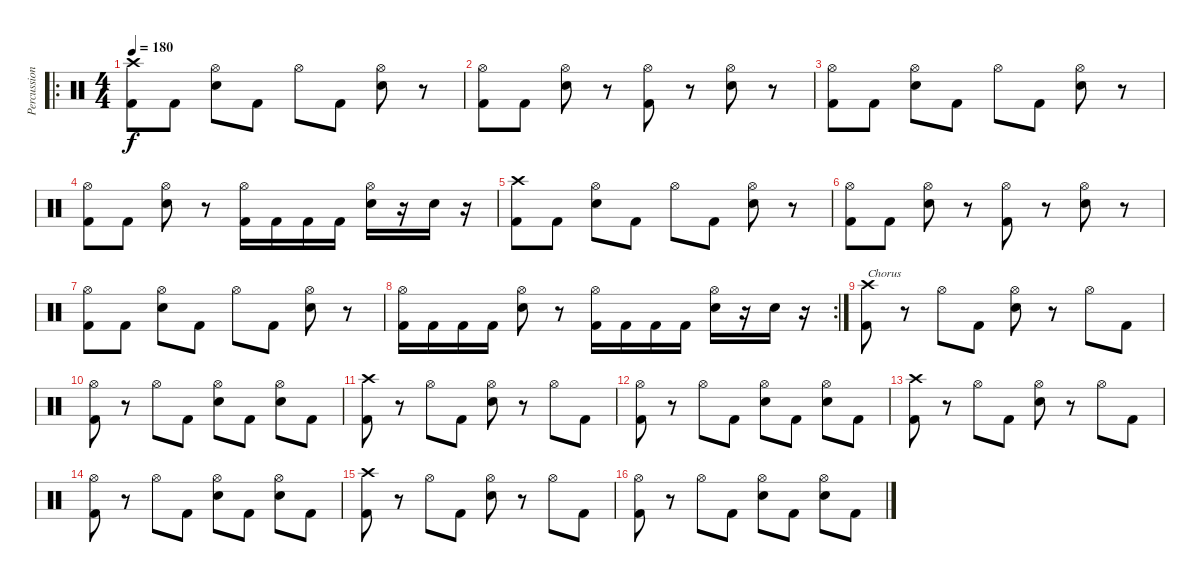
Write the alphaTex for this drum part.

\track ("Percussion" "Percussion") {instrument percussion}
\staff {score}
\articulation defaults
\ro
\ts (4 4)
\tempo 180
\clef neutral
\ks c
("Crash high (hit)" "Kick (hit) 2").8{dy f} "Kick (hit) 2".8 ("Hi-Hat (open)" "Electric Snare (hit)").8 "Kick (hit) 2".8 "Hi-Hat (open)".8 "Kick (hit) 2".8 ("Hi-Hat (open)" "Electric Snare (hit)").8 r.8 |
("Hi-Hat (open)" "Kick (hit) 2").8 "Kick (hit) 2".8 ("Hi-Hat (open)" "Electric Snare (hit)").8 r.8 ("Hi-Hat (open)" "Kick (hit) 2").8 r.8 ("Hi-Hat (open)" "Electric Snare (hit)").8 r.8 |
("Hi-Hat (open)" "Kick (hit) 2").8 "Kick (hit) 2".8 ("Hi-Hat (open)" "Electric Snare (hit)").8 "Kick (hit) 2".8 "Hi-Hat (open)".8 "Kick (hit) 2".8 ("Hi-Hat (open)" "Electric Snare (hit)").8 r.8 |
("Hi-Hat (open)" "Kick (hit) 2").8 "Kick (hit) 2".8 ("Hi-Hat (open)" "Electric Snare (hit)").8 r.8 ("Hi-Hat (open)" "Kick (hit) 2").16 "Kick (hit) 2".16 "Kick (hit) 2".16 "Kick (hit) 2".16 ("Hi-Hat (open)" "Electric Snare (hit)").16 r.16 "Electric Snare (hit)".16 r.16 |
("Crash high (hit)" "Kick (hit) 2").8 "Kick (hit) 2".8 ("Hi-Hat (open)" "Electric Snare (hit)").8 "Kick (hit) 2".8 "Hi-Hat (open)".8 "Kick (hit) 2".8 ("Hi-Hat (open)" "Electric Snare (hit)").8 r.8 |
("Hi-Hat (open)" "Kick (hit) 2").8 "Kick (hit) 2".8 ("Hi-Hat (open)" "Electric Snare (hit)").8 r.8 ("Hi-Hat (open)" "Kick (hit) 2").8 r.8 ("Hi-Hat (open)" "Electric Snare (hit)").8 r.8 |
("Hi-Hat (open)" "Kick (hit) 2").8 "Kick (hit) 2".8 ("Hi-Hat (open)" "Electric Snare (hit)").8 "Kick (hit) 2".8 "Hi-Hat (open)".8 "Kick (hit) 2".8 ("Hi-Hat (open)" "Electric Snare (hit)").8 r.8 |
\rc 2
("Hi-Hat (open)" "Kick (hit) 2").16 "Kick (hit) 2".16 "Kick (hit) 2".16 "Kick (hit) 2".16 ("Hi-Hat (open)" "Electric Snare (hit)").8 r.8 ("Hi-Hat (open)" "Kick (hit) 2").16 "Kick (hit) 2".16 "Kick (hit) 2".16 "Kick (hit) 2".16 ("Hi-Hat (open)" "Electric Snare (hit)").16 r.16 "Electric Snare (hit)".16 r.16 |
("Crash high (hit)" "Kick (hit) 2").8{txt "Chorus"} r.8 "Hi-Hat (open)".8 "Kick (hit) 2".8 ("Hi-Hat (open)" "Electric Snare (hit)").8 r.8 "Hi-Hat (open)".8 "Kick (hit) 2".8 |
("Hi-Hat (open)" "Kick (hit) 2").8 r.8 "Hi-Hat (open)".8 "Kick (hit) 2".8 ("Hi-Hat (open)" "Electric Snare (hit)").8 "Kick (hit) 2".8 ("Hi-Hat (open)" "Electric Snare (hit)").8 "Kick (hit) 2".8 |
("Crash high (hit)" "Kick (hit) 2").8 r.8 "Hi-Hat (open)".8 "Kick (hit) 2".8 ("Hi-Hat (open)" "Electric Snare (hit)").8 r.8 "Hi-Hat (open)".8 "Kick (hit) 2".8 |
("Hi-Hat (open)" "Kick (hit) 2").8 r.8 "Hi-Hat (open)".8 "Kick (hit) 2".8 ("Hi-Hat (open)" "Electric Snare (hit)").8 "Kick (hit) 2".8 ("Hi-Hat (open)" "Electric Snare (hit)").8 "Kick (hit) 2".8 |
("Crash high (hit)" "Kick (hit) 2").8 r.8 "Hi-Hat (open)".8 "Kick (hit) 2".8 ("Hi-Hat (open)" "Electric Snare (hit)").8 r.8 "Hi-Hat (open)".8 "Kick (hit) 2".8 |
("Hi-Hat (open)" "Kick (hit) 2").8 r.8 "Hi-Hat (open)".8 "Kick (hit) 2".8 ("Hi-Hat (open)" "Electric Snare (hit)").8 "Kick (hit) 2".8 ("Hi-Hat (open)" "Electric Snare (hit)").8 "Kick (hit) 2".8 |
("Crash high (hit)" "Kick (hit) 2").8 r.8 "Hi-Hat (open)".8 "Kick (hit) 2".8 ("Hi-Hat (open)" "Electric Snare (hit)").8 r.8 "Hi-Hat (open)".8 "Kick (hit) 2".8 |
("Hi-Hat (open)" "Kick (hit) 2").8 r.8 "Hi-Hat (open)".8 "Kick (hit) 2".8 ("Hi-Hat (open)" "Electric Snare (hit)").8 "Kick (hit) 2".8 ("Hi-Hat (open)" "Electric Snare (hit)").8 "Kick (hit) 2".8
